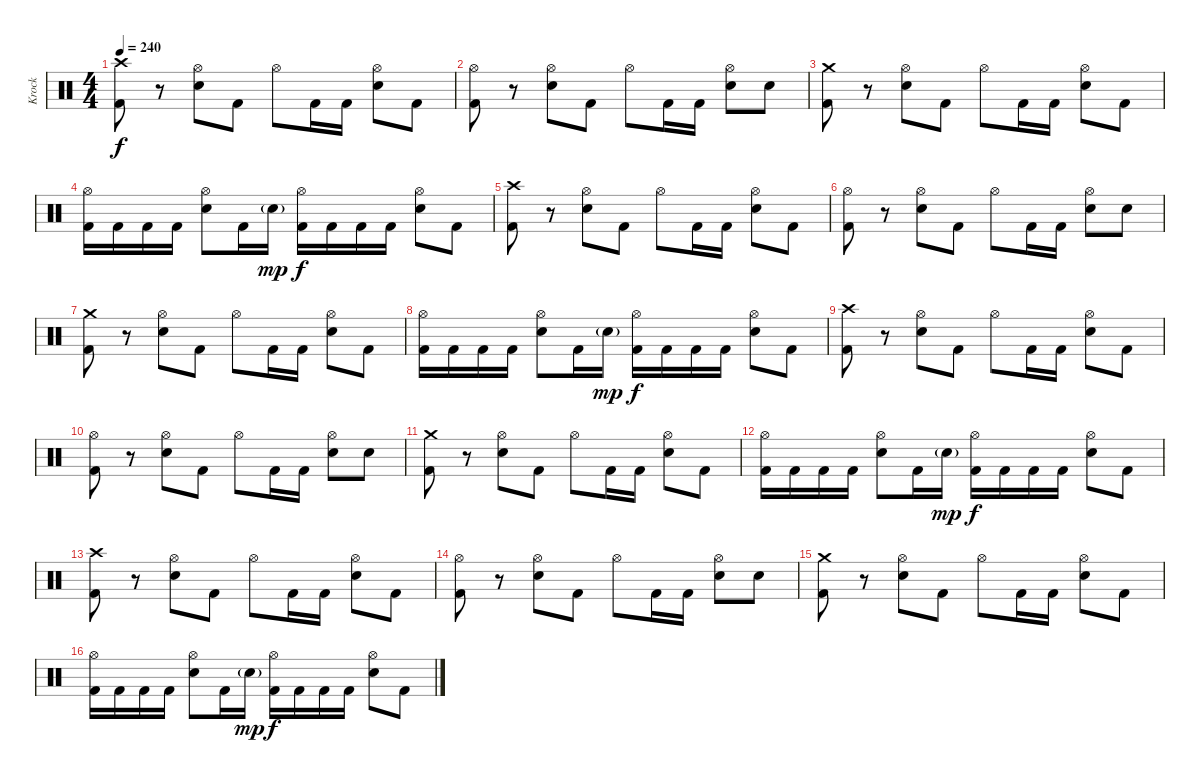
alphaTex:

\track ("Krock" "Krock") {instrument percussion}
\staff {score}
\articulation defaults
\ts (4 4)
\tempo 240
\clef neutral
\ks c
("Kick (hit) 2" "Crash high (hit)").8{dy f} r.8 ("Electric Snare (hit)" "Hi-Hat (open)").8 "Kick (hit) 2".8 "Hi-Hat (open)".8 "Kick (hit) 2".16 "Kick (hit) 2".16 ("Electric Snare (hit)" "Hi-Hat (open)").8 "Kick (hit) 2".8 |
("Kick (hit) 2" "Hi-Hat (open)").8 r.8 ("Electric Snare (hit)" "Hi-Hat (open)").8 "Kick (hit) 2".8 "Hi-Hat (open)".8 "Kick (hit) 2".16 "Kick (hit) 2".16 ("Electric Snare (hit)" "Hi-Hat (open)").8 "Electric Snare (hit)".8 |
("Kick (hit) 2" "Crash medium (hit)").8 r.8 ("Electric Snare (hit)" "Hi-Hat (open)").8 "Kick (hit) 2".8 "Hi-Hat (open)".8 "Kick (hit) 2".16 "Kick (hit) 2".16 ("Electric Snare (hit)" "Hi-Hat (open)").8 "Kick (hit) 2".8 |
("Kick (hit) 2" "Hi-Hat (open)").16 "Kick (hit) 2".16 "Kick (hit) 2".16 "Kick (hit) 2".16 ("Electric Snare (hit)" "Hi-Hat (open)").8 "Kick (hit) 2".16 "Electric Snare (hit)"{g}.16{dy mp} ("Kick (hit) 2" "Hi-Hat (open)").16{dy f} "Kick (hit) 2".16 "Kick (hit) 2".16 "Kick (hit) 2".16 ("Electric Snare (hit)" "Hi-Hat (open)").8 "Kick (hit) 2".8 |
("Kick (hit) 2" "Crash high (hit)").8 r.8 ("Electric Snare (hit)" "Hi-Hat (open)").8 "Kick (hit) 2".8 "Hi-Hat (open)".8 "Kick (hit) 2".16 "Kick (hit) 2".16 ("Electric Snare (hit)" "Hi-Hat (open)").8 "Kick (hit) 2".8 |
("Kick (hit) 2" "Hi-Hat (open)").8 r.8 ("Electric Snare (hit)" "Hi-Hat (open)").8 "Kick (hit) 2".8 "Hi-Hat (open)".8 "Kick (hit) 2".16 "Kick (hit) 2".16 ("Electric Snare (hit)" "Hi-Hat (open)").8 "Electric Snare (hit)".8 |
("Kick (hit) 2" "Crash medium (hit)").8 r.8 ("Electric Snare (hit)" "Hi-Hat (open)").8 "Kick (hit) 2".8 "Hi-Hat (open)".8 "Kick (hit) 2".16 "Kick (hit) 2".16 ("Electric Snare (hit)" "Hi-Hat (open)").8 "Kick (hit) 2".8 |
("Kick (hit) 2" "Hi-Hat (open)").16 "Kick (hit) 2".16 "Kick (hit) 2".16 "Kick (hit) 2".16 ("Electric Snare (hit)" "Hi-Hat (open)").8 "Kick (hit) 2".16 "Electric Snare (hit)"{g}.16{dy mp} ("Kick (hit) 2" "Hi-Hat (open)").16{dy f} "Kick (hit) 2".16 "Kick (hit) 2".16 "Kick (hit) 2".16 ("Electric Snare (hit)" "Hi-Hat (open)").8 "Kick (hit) 2".8 |
("Kick (hit) 2" "Crash high (hit)").8 r.8 ("Electric Snare (hit)" "Hi-Hat (open)").8 "Kick (hit) 2".8 "Hi-Hat (open)".8 "Kick (hit) 2".16 "Kick (hit) 2".16 ("Electric Snare (hit)" "Hi-Hat (open)").8 "Kick (hit) 2".8 |
("Kick (hit) 2" "Hi-Hat (open)").8 r.8 ("Electric Snare (hit)" "Hi-Hat (open)").8 "Kick (hit) 2".8 "Hi-Hat (open)".8 "Kick (hit) 2".16 "Kick (hit) 2".16 ("Electric Snare (hit)" "Hi-Hat (open)").8 "Electric Snare (hit)".8 |
("Kick (hit) 2" "Crash medium (hit)").8 r.8 ("Electric Snare (hit)" "Hi-Hat (open)").8 "Kick (hit) 2".8 "Hi-Hat (open)".8 "Kick (hit) 2".16 "Kick (hit) 2".16 ("Electric Snare (hit)" "Hi-Hat (open)").8 "Kick (hit) 2".8 |
("Kick (hit) 2" "Hi-Hat (open)").16 "Kick (hit) 2".16 "Kick (hit) 2".16 "Kick (hit) 2".16 ("Electric Snare (hit)" "Hi-Hat (open)").8 "Kick (hit) 2".16 "Electric Snare (hit)"{g}.16{dy mp} ("Kick (hit) 2" "Hi-Hat (open)").16{dy f} "Kick (hit) 2".16 "Kick (hit) 2".16 "Kick (hit) 2".16 ("Electric Snare (hit)" "Hi-Hat (open)").8 "Kick (hit) 2".8 |
("Kick (hit) 2" "Crash high (hit)").8 r.8 ("Electric Snare (hit)" "Hi-Hat (open)").8 "Kick (hit) 2".8 "Hi-Hat (open)".8 "Kick (hit) 2".16 "Kick (hit) 2".16 ("Electric Snare (hit)" "Hi-Hat (open)").8 "Kick (hit) 2".8 |
("Kick (hit) 2" "Hi-Hat (open)").8 r.8 ("Electric Snare (hit)" "Hi-Hat (open)").8 "Kick (hit) 2".8 "Hi-Hat (open)".8 "Kick (hit) 2".16 "Kick (hit) 2".16 ("Electric Snare (hit)" "Hi-Hat (open)").8 "Electric Snare (hit)".8 |
("Kick (hit) 2" "Crash medium (hit)").8 r.8 ("Electric Snare (hit)" "Hi-Hat (open)").8 "Kick (hit) 2".8 "Hi-Hat (open)".8 "Kick (hit) 2".16 "Kick (hit) 2".16 ("Electric Snare (hit)" "Hi-Hat (open)").8 "Kick (hit) 2".8 |
("Kick (hit) 2" "Hi-Hat (open)").16 "Kick (hit) 2".16 "Kick (hit) 2".16 "Kick (hit) 2".16 ("Electric Snare (hit)" "Hi-Hat (open)").8 "Kick (hit) 2".16 "Electric Snare (hit)"{g}.16{dy mp} ("Kick (hit) 2" "Hi-Hat (open)").16{dy f} "Kick (hit) 2".16 "Kick (hit) 2".16 "Kick (hit) 2".16 ("Electric Snare (hit)" "Hi-Hat (open)").8 "Kick (hit) 2".8
